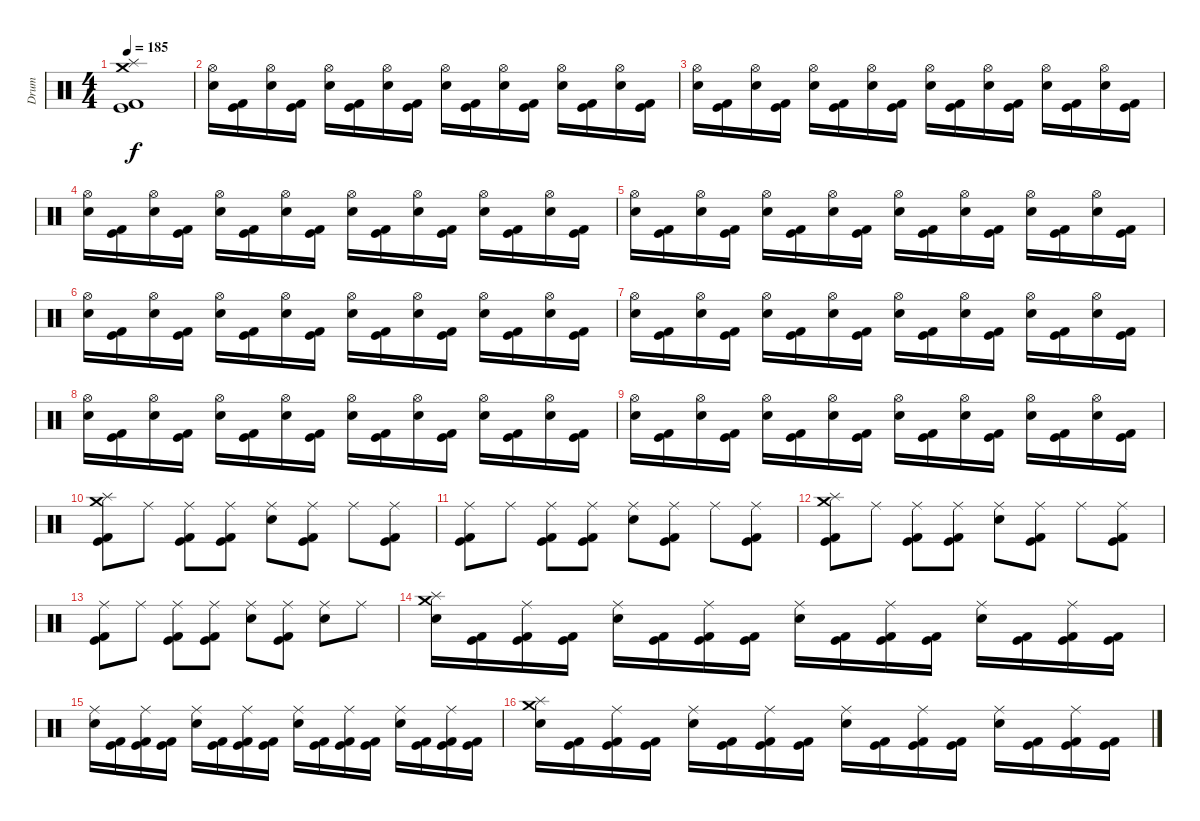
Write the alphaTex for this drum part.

\track ("Drum" "Drum") {instrument percussion}
\staff {score}
\articulation defaults
\ts (4 4)
\tempo 185
\clef neutral
\ks c
("Crash medium (hit)" "Splash (hit)" "Kick (hit)" "Kick (hit) 2").1{dy f} |
("Hi-Hat (open)" "Snare (hit) 2").16 ("Kick (hit)" "Kick (hit) 2").16 ("Hi-Hat (open)" "Snare (hit) 2").16 ("Kick (hit)" "Kick (hit) 2").16 ("Hi-Hat (open)" "Snare (hit) 2").16 ("Kick (hit)" "Kick (hit) 2").16 ("Hi-Hat (open)" "Snare (hit) 2").16 ("Kick (hit)" "Kick (hit) 2").16 ("Hi-Hat (open)" "Snare (hit) 2").16 ("Kick (hit)" "Kick (hit) 2").16 ("Hi-Hat (open)" "Snare (hit) 2").16 ("Kick (hit)" "Kick (hit) 2").16 ("Hi-Hat (open)" "Snare (hit) 2").16 ("Kick (hit)" "Kick (hit) 2").16 ("Hi-Hat (open)" "Snare (hit) 2").16 ("Kick (hit)" "Kick (hit) 2").16 |
("Hi-Hat (open)" "Snare (hit) 2").16 ("Kick (hit)" "Kick (hit) 2").16 ("Hi-Hat (open)" "Snare (hit) 2").16 ("Kick (hit)" "Kick (hit) 2").16 ("Hi-Hat (open)" "Snare (hit) 2").16 ("Kick (hit)" "Kick (hit) 2").16 ("Hi-Hat (open)" "Snare (hit) 2").16 ("Kick (hit)" "Kick (hit) 2").16 ("Hi-Hat (open)" "Snare (hit) 2").16 ("Kick (hit)" "Kick (hit) 2").16 ("Hi-Hat (open)" "Snare (hit) 2").16 ("Kick (hit)" "Kick (hit) 2").16 ("Hi-Hat (open)" "Snare (hit) 2").16 ("Kick (hit)" "Kick (hit) 2").16 ("Hi-Hat (open)" "Snare (hit) 2").16 ("Kick (hit)" "Kick (hit) 2").16 |
("Hi-Hat (open)" "Snare (hit) 2").16 ("Kick (hit)" "Kick (hit) 2").16 ("Hi-Hat (open)" "Snare (hit) 2").16 ("Kick (hit)" "Kick (hit) 2").16 ("Hi-Hat (open)" "Snare (hit) 2").16 ("Kick (hit)" "Kick (hit) 2").16 ("Hi-Hat (open)" "Snare (hit) 2").16 ("Kick (hit)" "Kick (hit) 2").16 ("Hi-Hat (open)" "Snare (hit) 2").16 ("Kick (hit)" "Kick (hit) 2").16 ("Hi-Hat (open)" "Snare (hit) 2").16 ("Kick (hit)" "Kick (hit) 2").16 ("Hi-Hat (open)" "Snare (hit) 2").16 ("Kick (hit)" "Kick (hit) 2").16 ("Hi-Hat (open)" "Snare (hit) 2").16 ("Kick (hit)" "Kick (hit) 2").16 |
("Hi-Hat (open)" "Snare (hit) 2").16 ("Kick (hit)" "Kick (hit) 2").16 ("Hi-Hat (open)" "Snare (hit) 2").16 ("Kick (hit)" "Kick (hit) 2").16 ("Hi-Hat (open)" "Snare (hit) 2").16 ("Kick (hit)" "Kick (hit) 2").16 ("Hi-Hat (open)" "Snare (hit) 2").16 ("Kick (hit)" "Kick (hit) 2").16 ("Hi-Hat (open)" "Snare (hit) 2").16 ("Kick (hit)" "Kick (hit) 2").16 ("Hi-Hat (open)" "Snare (hit) 2").16 ("Kick (hit)" "Kick (hit) 2").16 ("Hi-Hat (open)" "Snare (hit) 2").16 ("Kick (hit)" "Kick (hit) 2").16 ("Hi-Hat (open)" "Snare (hit) 2").16 ("Kick (hit)" "Kick (hit) 2").16 |
("Hi-Hat (open)" "Snare (hit) 2").16 ("Kick (hit)" "Kick (hit) 2").16 ("Hi-Hat (open)" "Snare (hit) 2").16 ("Kick (hit)" "Kick (hit) 2").16 ("Hi-Hat (open)" "Snare (hit) 2").16 ("Kick (hit)" "Kick (hit) 2").16 ("Hi-Hat (open)" "Snare (hit) 2").16 ("Kick (hit)" "Kick (hit) 2").16 ("Hi-Hat (open)" "Snare (hit) 2").16 ("Kick (hit)" "Kick (hit) 2").16 ("Hi-Hat (open)" "Snare (hit) 2").16 ("Kick (hit)" "Kick (hit) 2").16 ("Hi-Hat (open)" "Snare (hit) 2").16 ("Kick (hit)" "Kick (hit) 2").16 ("Hi-Hat (open)" "Snare (hit) 2").16 ("Kick (hit)" "Kick (hit) 2").16 |
("Hi-Hat (open)" "Snare (hit) 2").16 ("Kick (hit)" "Kick (hit) 2").16 ("Hi-Hat (open)" "Snare (hit) 2").16 ("Kick (hit)" "Kick (hit) 2").16 ("Hi-Hat (open)" "Snare (hit) 2").16 ("Kick (hit)" "Kick (hit) 2").16 ("Hi-Hat (open)" "Snare (hit) 2").16 ("Kick (hit)" "Kick (hit) 2").16 ("Hi-Hat (open)" "Snare (hit) 2").16 ("Kick (hit)" "Kick (hit) 2").16 ("Hi-Hat (open)" "Snare (hit) 2").16 ("Kick (hit)" "Kick (hit) 2").16 ("Hi-Hat (open)" "Snare (hit) 2").16 ("Kick (hit)" "Kick (hit) 2").16 ("Hi-Hat (open)" "Snare (hit) 2").16 ("Kick (hit)" "Kick (hit) 2").16 |
("Hi-Hat (open)" "Snare (hit) 2").16 ("Kick (hit)" "Kick (hit) 2").16 ("Hi-Hat (open)" "Snare (hit) 2").16 ("Kick (hit)" "Kick (hit) 2").16 ("Hi-Hat (open)" "Snare (hit) 2").16 ("Kick (hit)" "Kick (hit) 2").16 ("Hi-Hat (open)" "Snare (hit) 2").16 ("Kick (hit)" "Kick (hit) 2").16 ("Hi-Hat (open)" "Snare (hit) 2").16 ("Kick (hit)" "Kick (hit) 2").16 ("Hi-Hat (open)" "Snare (hit) 2").16 ("Kick (hit)" "Kick (hit) 2").16 ("Hi-Hat (open)" "Snare (hit) 2").16 ("Kick (hit)" "Kick (hit) 2").16 ("Hi-Hat (open)" "Snare (hit) 2").16 ("Kick (hit)" "Kick (hit) 2").16 |
("Hi-Hat (open)" "Snare (hit) 2").16 ("Kick (hit)" "Kick (hit) 2").16 ("Hi-Hat (open)" "Snare (hit) 2").16 ("Kick (hit)" "Kick (hit) 2").16 ("Hi-Hat (open)" "Snare (hit) 2").16 ("Kick (hit)" "Kick (hit) 2").16 ("Hi-Hat (open)" "Snare (hit) 2").16 ("Kick (hit)" "Kick (hit) 2").16 ("Hi-Hat (open)" "Snare (hit) 2").16 ("Kick (hit)" "Kick (hit) 2").16 ("Hi-Hat (open)" "Snare (hit) 2").16 ("Kick (hit)" "Kick (hit) 2").16 ("Hi-Hat (open)" "Snare (hit) 2").16 ("Kick (hit)" "Kick (hit) 2").16 ("Hi-Hat (open)" "Snare (hit) 2").16 ("Kick (hit)" "Kick (hit) 2").16 |
("Splash (hit)" "Crash medium (hit)" "Kick (hit)" "Kick (hit) 2").8 "Ride (middle)".8 ("Ride (middle)" "Kick (hit)" "Kick (hit) 2").8 ("Ride (middle)" "Kick (hit)" "Kick (hit) 2").8 ("Ride (middle)" "Snare (hit) 2").8 ("Ride (middle)" "Kick (hit)" "Kick (hit) 2").8 "Ride (middle)".8 ("Ride (middle)" "Kick (hit)" "Kick (hit) 2").8 |
("Ride (middle)" "Kick (hit)" "Kick (hit) 2").8 "Ride (middle)".8 ("Ride (middle)" "Kick (hit)" "Kick (hit) 2").8 ("Ride (middle)" "Kick (hit)" "Kick (hit) 2").8 ("Ride (middle)" "Snare (hit) 2").8 ("Ride (middle)" "Kick (hit)" "Kick (hit) 2").8 "Ride (middle)".8 ("Ride (middle)" "Kick (hit)" "Kick (hit) 2").8 |
("Splash (hit)" "Crash medium (hit)" "Kick (hit)" "Kick (hit) 2").8 "Ride (middle)".8 ("Ride (middle)" "Kick (hit)" "Kick (hit) 2").8 ("Ride (middle)" "Kick (hit)" "Kick (hit) 2").8 ("Ride (middle)" "Snare (hit) 2").8 ("Ride (middle)" "Kick (hit)" "Kick (hit) 2").8 "Ride (middle)".8 ("Ride (middle)" "Kick (hit)" "Kick (hit) 2").8 |
("Ride (middle)" "Kick (hit)" "Kick (hit) 2").8 "Ride (middle)".8 ("Ride (middle)" "Kick (hit)" "Kick (hit) 2").8 ("Ride (middle)" "Kick (hit)" "Kick (hit) 2").8 ("Ride (middle)" "Snare (hit) 2").8 ("Ride (middle)" "Kick (hit)" "Kick (hit) 2").8 ("Ride (middle)" "Snare (hit) 2").8 "Ride (middle)".8 |
("Splash (hit)" "Crash medium (hit)" "Snare (hit) 2").16 ("Kick (hit)" "Kick (hit) 2").16 ("Ride (middle)" "Kick (hit)" "Kick (hit) 2").16 ("Kick (hit)" "Kick (hit) 2").16 ("Ride (middle)" "Snare (hit) 2").16 ("Kick (hit)" "Kick (hit) 2").16 ("Ride (middle)" "Kick (hit)" "Kick (hit) 2").16 ("Kick (hit)" "Kick (hit) 2").16 ("Ride (middle)" "Snare (hit) 2").16 ("Kick (hit)" "Kick (hit) 2").16 ("Ride (middle)" "Kick (hit)" "Kick (hit) 2").16 ("Kick (hit)" "Kick (hit) 2").16 ("Ride (middle)" "Snare (hit) 2").16 ("Kick (hit)" "Kick (hit) 2").16 ("Ride (middle)" "Kick (hit)" "Kick (hit) 2").16 ("Kick (hit)" "Kick (hit) 2").16 |
("Ride (middle)" "Snare (hit) 2").16 ("Kick (hit)" "Kick (hit) 2").16 ("Ride (middle)" "Kick (hit)" "Kick (hit) 2").16 ("Kick (hit)" "Kick (hit) 2").16 ("Ride (middle)" "Snare (hit) 2").16 ("Kick (hit)" "Kick (hit) 2").16 ("Ride (middle)" "Kick (hit)" "Kick (hit) 2").16 ("Kick (hit)" "Kick (hit) 2").16 ("Ride (middle)" "Snare (hit) 2").16 ("Kick (hit)" "Kick (hit) 2").16 ("Ride (middle)" "Kick (hit)" "Kick (hit) 2").16 ("Kick (hit)" "Kick (hit) 2").16 ("Ride (middle)" "Snare (hit) 2").16 ("Kick (hit)" "Kick (hit) 2").16 ("Ride (middle)" "Kick (hit)" "Kick (hit) 2").16 ("Kick (hit)" "Kick (hit) 2").16 |
("Splash (hit)" "Crash medium (hit)" "Snare (hit) 2").16 ("Kick (hit)" "Kick (hit) 2").16 ("Ride (middle)" "Kick (hit)" "Kick (hit) 2").16 ("Kick (hit)" "Kick (hit) 2").16 ("Ride (middle)" "Snare (hit) 2").16 ("Kick (hit)" "Kick (hit) 2").16 ("Ride (middle)" "Kick (hit)" "Kick (hit) 2").16 ("Kick (hit)" "Kick (hit) 2").16 ("Ride (middle)" "Snare (hit) 2").16 ("Kick (hit)" "Kick (hit) 2").16 ("Ride (middle)" "Kick (hit)" "Kick (hit) 2").16 ("Kick (hit)" "Kick (hit) 2").16 ("Ride (middle)" "Snare (hit) 2").16 ("Kick (hit)" "Kick (hit) 2").16 ("Ride (middle)" "Kick (hit)" "Kick (hit) 2").16 ("Kick (hit)" "Kick (hit) 2").16
